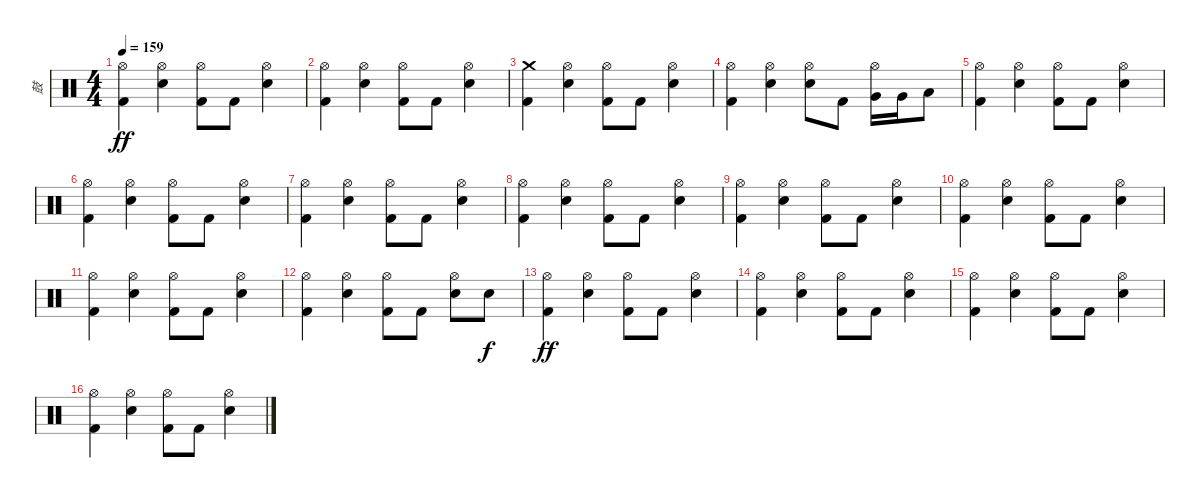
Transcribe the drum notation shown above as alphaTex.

\track ("鼓" "鼓") {instrument percussion}
\staff {score}
\articulation defaults
\ts (4 4)
\tempo 159
\clef neutral
\ks c
("Hi-Hat (open)" "Kick (hit) 2").4{dy ff} ("Hi-Hat (open)" "Electric Snare (hit)").4 ("Hi-Hat (open)" "Kick (hit) 2").8 "Kick (hit) 2".8 ("Hi-Hat (open)" "Electric Snare (hit)").4 |
("Hi-Hat (open)" "Kick (hit) 2").4 ("Hi-Hat (open)" "Electric Snare (hit)").4 ("Hi-Hat (open)" "Kick (hit) 2").8 "Kick (hit) 2".8 ("Hi-Hat (open)" "Electric Snare (hit)").4 |
("Crash medium (hit)" "Kick (hit) 2").4 ("Hi-Hat (open)" "Electric Snare (hit)").4 ("Hi-Hat (open)" "Kick (hit) 2").8 "Kick (hit) 2".8 ("Hi-Hat (open)" "Electric Snare (hit)").4 |
("Hi-Hat (open)" "Kick (hit) 2").4 ("Hi-Hat (open)" "Electric Snare (hit)").4 ("Hi-Hat (open)" "Electric Snare (hit)").8 "Kick (hit) 2".8 ("Hi-Hat (open)" "Very Low Tom (hit)").16 "Very Low Tom (hit)".16 "Low Tom (hit)".8 |
("Hi-Hat (open)" "Kick (hit) 2").4 ("Hi-Hat (open)" "Electric Snare (hit)").4 ("Hi-Hat (open)" "Kick (hit) 2").8 "Kick (hit) 2".8 ("Hi-Hat (open)" "Electric Snare (hit)").4 |
("Hi-Hat (open)" "Kick (hit) 2").4 ("Hi-Hat (open)" "Electric Snare (hit)").4 ("Hi-Hat (open)" "Kick (hit) 2").8 "Kick (hit) 2".8 ("Hi-Hat (open)" "Electric Snare (hit)").4 |
("Hi-Hat (open)" "Kick (hit) 2").4 ("Hi-Hat (open)" "Electric Snare (hit)").4 ("Hi-Hat (open)" "Kick (hit) 2").8 "Kick (hit) 2".8 ("Hi-Hat (open)" "Electric Snare (hit)").4 |
("Hi-Hat (open)" "Kick (hit) 2").4 ("Hi-Hat (open)" "Electric Snare (hit)").4 ("Hi-Hat (open)" "Kick (hit) 2").8 "Kick (hit) 2".8 ("Hi-Hat (open)" "Electric Snare (hit)").4 |
("Hi-Hat (open)" "Kick (hit) 2").4 ("Hi-Hat (open)" "Electric Snare (hit)").4 ("Hi-Hat (open)" "Kick (hit) 2").8 "Kick (hit) 2".8 ("Hi-Hat (open)" "Electric Snare (hit)").4 |
("Hi-Hat (open)" "Kick (hit) 2").4 ("Hi-Hat (open)" "Electric Snare (hit)").4 ("Hi-Hat (open)" "Kick (hit) 2").8 "Kick (hit) 2".8 ("Hi-Hat (open)" "Electric Snare (hit)").4 |
("Hi-Hat (open)" "Kick (hit) 2").4 ("Hi-Hat (open)" "Electric Snare (hit)").4 ("Hi-Hat (open)" "Kick (hit) 2").8 "Kick (hit) 2".8 ("Hi-Hat (open)" "Electric Snare (hit)").4 |
("Hi-Hat (open)" "Kick (hit) 2").4 ("Hi-Hat (open)" "Electric Snare (hit)").4 ("Hi-Hat (open)" "Kick (hit) 2").8 "Kick (hit) 2".8 ("Hi-Hat (open)" "Electric Snare (hit)").8 "Electric Snare (hit)".8{dy f} |
("Hi-Hat (open)" "Kick (hit) 2").4{dy ff} ("Hi-Hat (open)" "Electric Snare (hit)").4 ("Hi-Hat (open)" "Kick (hit) 2").8 "Kick (hit) 2".8 ("Hi-Hat (open)" "Electric Snare (hit)").4 |
("Hi-Hat (open)" "Kick (hit) 2").4 ("Hi-Hat (open)" "Electric Snare (hit)").4 ("Hi-Hat (open)" "Kick (hit) 2").8 "Kick (hit) 2".8 ("Hi-Hat (open)" "Electric Snare (hit)").4 |
("Hi-Hat (open)" "Kick (hit) 2").4 ("Hi-Hat (open)" "Electric Snare (hit)").4 ("Hi-Hat (open)" "Kick (hit) 2").8 "Kick (hit) 2".8 ("Hi-Hat (open)" "Electric Snare (hit)").4 |
("Hi-Hat (open)" "Kick (hit) 2").4 ("Hi-Hat (open)" "Electric Snare (hit)").4 ("Hi-Hat (open)" "Kick (hit) 2").8 "Kick (hit) 2".8 ("Hi-Hat (open)" "Electric Snare (hit)").4
